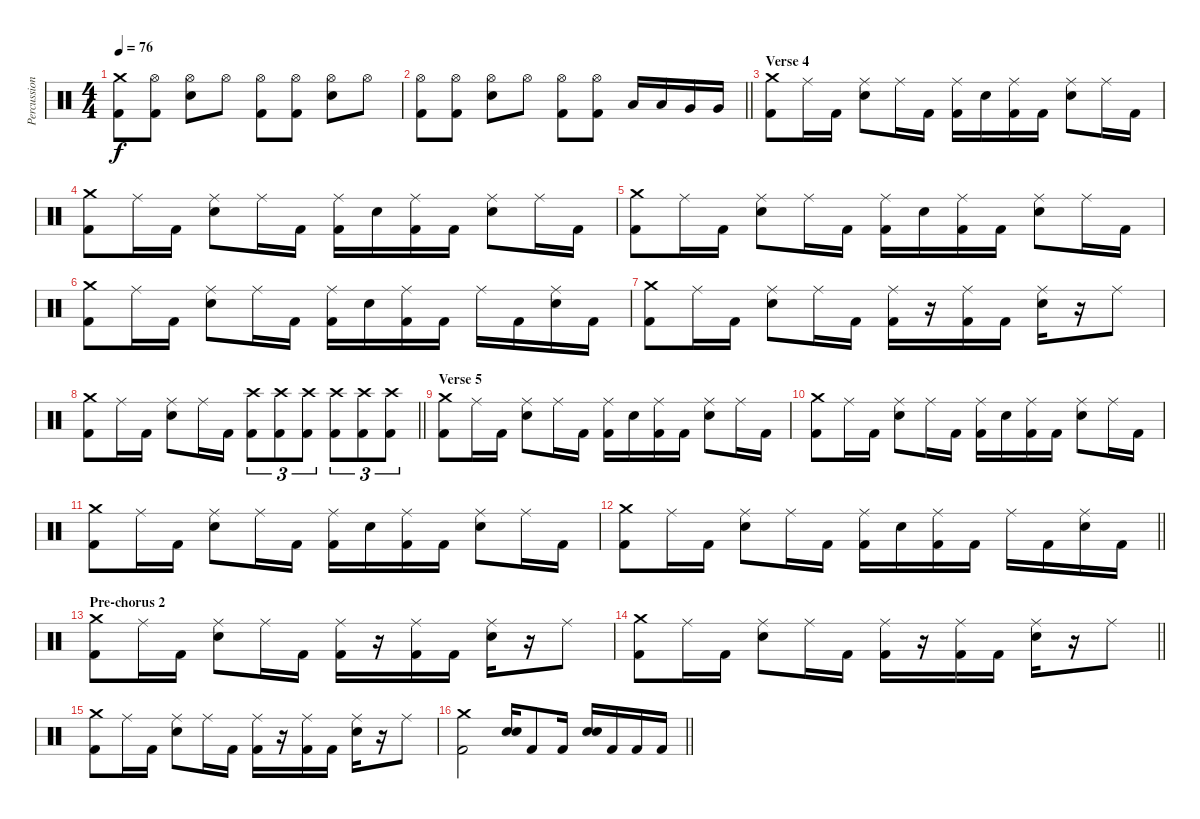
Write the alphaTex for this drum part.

\track ("Percussions" "Percussion") {instrument percussion}
\staff {score}
\articulation defaults
\ts (4 4)
\tempo 76
\clef neutral
\ks c
("Crash medium (hit)" "Kick (hit) 2").8{dy f} ("Hi-Hat (open)" "Kick (hit) 2").8 ("Hi-Hat (open)" "Electric Snare (hit)").8 "Hi-Hat (open)".8 ("Hi-Hat (open)" "Kick (hit) 2").8 ("Hi-Hat (open)" "Kick (hit) 2").8 ("Hi-Hat (open)" "Electric Snare (hit)").8 "Hi-Hat (open)".8 |
\barLineRight lightlight
("Hi-Hat (open)" "Kick (hit) 2").8 ("Hi-Hat (open)" "Kick (hit) 2").8 ("Hi-Hat (open)" "Electric Snare (hit)").8 "Hi-Hat (open)".8 ("Hi-Hat (open)" "Kick (hit) 2").8 ("Hi-Hat (open)" "Kick (hit) 2").8 "Low Tom (hit)".16 "Low Tom (hit)".16 "Very Low Tom (hit)".16 "Very Low Tom (hit)".16 |
\section ("" "Verse 4")
("Crash medium (hit)" "Kick (hit) 2").8 "Ride (middle)".16 "Kick (hit) 2".16 ("Ride (middle)" "Electric Snare (hit)").8 "Ride (middle)".16 "Kick (hit) 2".16 ("Ride (middle)" "Kick (hit) 2").16 "Electric Snare (hit)".16 ("Ride (middle)" "Kick (hit) 2").16 "Kick (hit) 2".16 ("Ride (middle)" "Electric Snare (hit)").8 "Ride (middle)".16 "Kick (hit) 2".16 |
("Crash medium (hit)" "Kick (hit) 2").8 "Ride (middle)".16 "Kick (hit) 2".16 ("Ride (middle)" "Electric Snare (hit)").8 "Ride (middle)".16 "Kick (hit) 2".16 ("Ride (middle)" "Kick (hit) 2").16 "Electric Snare (hit)".16 ("Ride (middle)" "Kick (hit) 2").16 "Kick (hit) 2".16 ("Ride (middle)" "Electric Snare (hit)").8 "Ride (middle)".16 "Kick (hit) 2".16 |
("Crash medium (hit)" "Kick (hit) 2").8 "Ride (middle)".16 "Kick (hit) 2".16 ("Ride (middle)" "Electric Snare (hit)").8 "Ride (middle)".16 "Kick (hit) 2".16 ("Ride (middle)" "Kick (hit) 2").16 "Electric Snare (hit)".16 ("Ride (middle)" "Kick (hit) 2").16 "Kick (hit) 2".16 ("Ride (middle)" "Electric Snare (hit)").8 "Ride (middle)".16 "Kick (hit) 2".16 |
("Crash medium (hit)" "Kick (hit) 2").8 "Ride (middle)".16 "Kick (hit) 2".16 ("Ride (middle)" "Electric Snare (hit)").8 "Ride (middle)".16 "Kick (hit) 2".16 ("Ride (middle)" "Kick (hit) 2").16 "Electric Snare (hit)".16 ("Ride (middle)" "Kick (hit) 2").16 "Kick (hit) 2".16 "Ride (middle)".16 "Kick (hit) 2".16 ("Ride (middle)" "Electric Snare (hit)").16 "Kick (hit) 2".16 |
("Crash medium (hit)" "Kick (hit) 2").8 "Ride (middle)".16 "Kick (hit) 2".16 ("Ride (middle)" "Electric Snare (hit)").8 "Ride (middle)".16 "Kick (hit) 2".16 ("Ride (middle)" "Kick (hit) 2").16 r.16 ("Ride (middle)" "Kick (hit) 2").16 "Kick (hit) 2".16 ("Ride (middle)" "Electric Snare (hit)").16 r.16 "Ride (middle)".8 |
\barLineRight lightlight
("Crash medium (hit)" "Kick (hit) 2").8 "Ride (middle)".16 "Kick (hit) 2".16 ("Ride (middle)" "Electric Snare (hit)").8 "Ride (middle)".16 "Kick (hit) 2".16 ("Crash high (hit)" "Kick (hit) 2").8{tu (3 2)} ("Crash high (hit)" "Kick (hit) 2").8{tu (3 2)} ("Crash high (hit)" "Kick (hit) 2").8{tu (3 2)} ("Crash high (hit)" "Kick (hit) 2").8{tu (3 2)} ("Crash high (hit)" "Kick (hit) 2").8{tu (3 2)} ("Crash high (hit)" "Kick (hit) 2").8{tu (3 2)} |
\section ("" "Verse 5")
("Crash medium (hit)" "Kick (hit) 2").8 "Ride (middle)".16 "Kick (hit) 2".16 ("Ride (middle)" "Electric Snare (hit)").8 "Ride (middle)".16 "Kick (hit) 2".16 ("Ride (middle)" "Kick (hit) 2").16 "Electric Snare (hit)".16 ("Ride (middle)" "Kick (hit) 2").16 "Kick (hit) 2".16 ("Ride (middle)" "Electric Snare (hit)").8 "Ride (middle)".16 "Kick (hit) 2".16 |
("Crash medium (hit)" "Kick (hit) 2").8 "Ride (middle)".16 "Kick (hit) 2".16 ("Ride (middle)" "Electric Snare (hit)").8 "Ride (middle)".16 "Kick (hit) 2".16 ("Ride (middle)" "Kick (hit) 2").16 "Electric Snare (hit)".16 ("Ride (middle)" "Kick (hit) 2").16 "Kick (hit) 2".16 ("Ride (middle)" "Electric Snare (hit)").8 "Ride (middle)".16 "Kick (hit) 2".16 |
("Crash medium (hit)" "Kick (hit) 2").8 "Ride (middle)".16 "Kick (hit) 2".16 ("Ride (middle)" "Electric Snare (hit)").8 "Ride (middle)".16 "Kick (hit) 2".16 ("Ride (middle)" "Kick (hit) 2").16 "Electric Snare (hit)".16 ("Ride (middle)" "Kick (hit) 2").16 "Kick (hit) 2".16 ("Ride (middle)" "Electric Snare (hit)").8 "Ride (middle)".16 "Kick (hit) 2".16 |
\barLineRight lightlight
("Crash medium (hit)" "Kick (hit) 2").8 "Ride (middle)".16 "Kick (hit) 2".16 ("Ride (middle)" "Electric Snare (hit)").8 "Ride (middle)".16 "Kick (hit) 2".16 ("Ride (middle)" "Kick (hit) 2").16 "Electric Snare (hit)".16 ("Ride (middle)" "Kick (hit) 2").16 "Kick (hit) 2".16 "Ride (middle)".16 "Kick (hit) 2".16 ("Ride (middle)" "Electric Snare (hit)").16 "Kick (hit) 2".16 |
\section ("" "Pre-chorus 2")
("Crash medium (hit)" "Kick (hit) 2").8 "Ride (middle)".16 "Kick (hit) 2".16 ("Ride (middle)" "Electric Snare (hit)").8 "Ride (middle)".16 "Kick (hit) 2".16 ("Ride (middle)" "Kick (hit) 2").16 r.16 ("Ride (middle)" "Kick (hit) 2").16 "Kick (hit) 2".16 ("Ride (middle)" "Electric Snare (hit)").16 r.16 "Ride (middle)".8 |
\barLineRight lightlight
("Crash medium (hit)" "Kick (hit) 2").8 "Ride (middle)".16 "Kick (hit) 2".16 ("Ride (middle)" "Electric Snare (hit)").8 "Ride (middle)".16 "Kick (hit) 2".16 ("Ride (middle)" "Kick (hit) 2").16 r.16 ("Ride (middle)" "Kick (hit) 2").16 "Kick (hit) 2".16 ("Ride (middle)" "Electric Snare (hit)").16 r.16 "Ride (middle)".8 |
("Crash medium (hit)" "Kick (hit) 2").8 "Ride (middle)".16 "Kick (hit) 2".16 ("Ride (middle)" "Electric Snare (hit)").8 "Ride (middle)".16 "Kick (hit) 2".16 ("Ride (middle)" "Kick (hit) 2").16 r.16 ("Ride (middle)" "Kick (hit) 2").16 "Kick (hit) 2".16 ("Ride (middle)" "Electric Snare (hit)").16 r.16 "Ride (middle)".8 |
\barLineRight lightlight
("Crash medium (hit)" "Kick (hit) 2").2 ("Electric Snare (hit)" "Electric Snare (hit)").16 "Kick (hit) 2".8 "Kick (hit) 2".16 ("Electric Snare (hit)" "Electric Snare (hit)").16 "Kick (hit) 2".16 "Kick (hit) 2".16 "Kick (hit) 2".16
